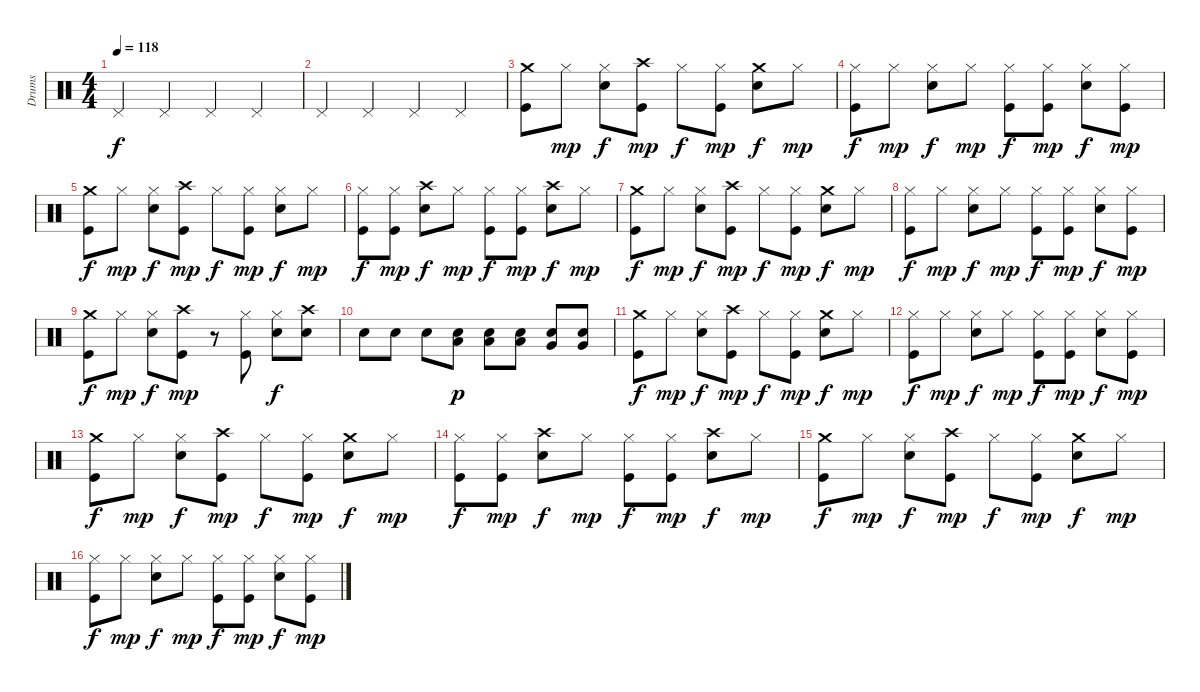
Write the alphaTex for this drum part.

\track ("Drums" "Drums") {instrument percussion}
\staff {score}
\articulation defaults
\ts (4 4)
\tempo 118
\clef neutral
\ks c "Pedal Hi-Hat (hit)".4{dy f} "Pedal Hi-Hat (hit)".4 "Pedal Hi-Hat (hit)".4 "Pedal Hi-Hat (hit)".4
|
"Pedal Hi-Hat (hit)".4 "Pedal Hi-Hat (hit)".4 "Pedal Hi-Hat (hit)".4 "Pedal Hi-Hat (hit)".4 |
("Crash medium (hit)" "Kick (hit)").8 "Hi-Hat (closed)".8{dy mp} ("Hi-Hat (closed)" "Snare (hit) 2").8{dy f} ("Crash high (hit)" "Kick (hit)").8{dy mp} "Hi-Hat (closed)".8{dy f} ("Hi-Hat (closed)" "Kick (hit)").8{dy mp} ("Crash medium (hit)" "Snare (hit) 2").8{dy f} "Hi-Hat (closed)".8{dy mp} |
("Hi-Hat (closed)" "Kick (hit)").8{dy f} "Hi-Hat (closed)".8{dy mp} ("Hi-Hat (closed)" "Snare (hit) 2").8{dy f} "Hi-Hat (closed)".8{dy mp} ("Hi-Hat (closed)" "Kick (hit)").8{dy f} ("Hi-Hat (closed)" "Kick (hit)").8{dy mp} ("Hi-Hat (closed)" "Snare (hit) 2").8{dy f} ("Hi-Hat (closed)" "Kick (hit)").8{dy mp} |
("Crash medium (hit)" "Kick (hit)").8{dy f} "Hi-Hat (closed)".8{dy mp} ("Hi-Hat (closed)" "Snare (hit) 2").8{dy f} ("Crash high (hit)" "Kick (hit)").8{dy mp} "Hi-Hat (closed)".8{dy f} ("Hi-Hat (closed)" "Kick (hit)").8{dy mp} ("Hi-Hat (closed)" "Snare (hit) 2").8{dy f} "Hi-Hat (closed)".8{dy mp} |
("Hi-Hat (closed)" "Kick (hit)").8{dy f} ("Hi-Hat (closed)" "Kick (hit)").8{dy mp} ("Crash high (hit)" "Snare (hit) 2").8{dy f} "Hi-Hat (closed)".8{dy mp} ("Hi-Hat (closed)" "Kick (hit)").8{dy f} ("Hi-Hat (closed)" "Kick (hit)").8{dy mp} ("Crash high (hit)" "Snare (hit) 2").8{dy f} "Hi-Hat (closed)".8{dy mp} |
("Crash medium (hit)" "Kick (hit)").8{dy f} "Hi-Hat (closed)".8{dy mp} ("Hi-Hat (closed)" "Snare (hit) 2").8{dy f} ("Crash high (hit)" "Kick (hit)").8{dy mp} "Hi-Hat (closed)".8{dy f} ("Hi-Hat (closed)" "Kick (hit)").8{dy mp} ("Crash medium (hit)" "Snare (hit) 2").8{dy f} "Hi-Hat (closed)".8{dy mp} |
("Hi-Hat (closed)" "Kick (hit)").8{dy f} "Hi-Hat (closed)".8{dy mp} ("Hi-Hat (closed)" "Snare (hit) 2").8{dy f} "Hi-Hat (closed)".8{dy mp} ("Hi-Hat (closed)" "Kick (hit)").8{dy f} ("Hi-Hat (closed)" "Kick (hit)").8{dy mp} ("Hi-Hat (closed)" "Snare (hit) 2").8{dy f} ("Hi-Hat (closed)" "Kick (hit)").8{dy mp} |
("Crash medium (hit)" "Kick (hit)").8{dy f} "Hi-Hat (closed)".8{dy mp} ("Hi-Hat (closed)" "Snare (hit) 2").8{dy f} ("Crash high (hit)" "Kick (hit)").8{dy mp} r.8 ("Hi-Hat (closed)" "Kick (hit)").8 ("Hi-Hat (closed)" "Snare (hit) 2").8{dy f} ("Crash high (hit)" "Snare (hit) 2").8 |
"Snare (hit) 2".8 "Snare (hit) 2".8 "Snare (hit) 2".8 ("Low Tom (hit)" "Snare (hit) 2").8{dy p} ("Low Tom (hit)" "Snare (hit) 2").8 ("Low Tom (hit)" "Snare (hit) 2").8 ("Very Low Tom (hit)" "Snare (hit) 2").8 ("Very Low Tom (hit)" "Snare (hit) 2").8 |
("Crash medium (hit)" "Kick (hit)").8{dy f} "Hi-Hat (closed)".8{dy mp} ("Hi-Hat (closed)" "Snare (hit) 2").8{dy f} ("Crash high (hit)" "Kick (hit)").8{dy mp} "Hi-Hat (closed)".8{dy f} ("Hi-Hat (closed)" "Kick (hit)").8{dy mp} ("Crash medium (hit)" "Snare (hit) 2").8{dy f} "Hi-Hat (closed)".8{dy mp} |
("Hi-Hat (closed)" "Kick (hit)").8{dy f} "Hi-Hat (closed)".8{dy mp} ("Hi-Hat (closed)" "Snare (hit) 2").8{dy f} "Hi-Hat (closed)".8{dy mp} ("Hi-Hat (closed)" "Kick (hit)").8{dy f} ("Hi-Hat (closed)" "Kick (hit)").8{dy mp} ("Hi-Hat (closed)" "Snare (hit) 2").8{dy f} ("Hi-Hat (closed)" "Kick (hit)").8{dy mp} |
("Crash medium (hit)" "Kick (hit)").8{dy f} "Hi-Hat (closed)".8{dy mp} ("Hi-Hat (closed)" "Snare (hit) 2").8{dy f} ("Crash high (hit)" "Kick (hit)").8{dy mp} "Hi-Hat (closed)".8{dy f} ("Hi-Hat (closed)" "Kick (hit)").8{dy mp} ("Crash medium (hit)" "Snare (hit) 2").8{dy f} "Hi-Hat (closed)".8{dy mp} |
("Hi-Hat (closed)" "Kick (hit)").8{dy f} ("Hi-Hat (closed)" "Kick (hit)").8{dy mp} ("Crash high (hit)" "Snare (hit) 2").8{dy f} "Hi-Hat (closed)".8{dy mp} ("Hi-Hat (closed)" "Kick (hit)").8{dy f} ("Hi-Hat (closed)" "Kick (hit)").8{dy mp} ("Crash high (hit)" "Snare (hit) 2").8{dy f} "Hi-Hat (closed)".8{dy mp} |
("Crash medium (hit)" "Kick (hit)").8{dy f} "Hi-Hat (closed)".8{dy mp} ("Hi-Hat (closed)" "Snare (hit) 2").8{dy f} ("Crash high (hit)" "Kick (hit)").8{dy mp} "Hi-Hat (closed)".8{dy f} ("Hi-Hat (closed)" "Kick (hit)").8{dy mp} ("Crash medium (hit)" "Snare (hit) 2").8{dy f} "Hi-Hat (closed)".8{dy mp} |
("Hi-Hat (closed)" "Kick (hit)").8{dy f} "Hi-Hat (closed)".8{dy mp} ("Hi-Hat (closed)" "Snare (hit) 2").8{dy f} "Hi-Hat (closed)".8{dy mp} ("Hi-Hat (closed)" "Kick (hit)").8{dy f} ("Hi-Hat (closed)" "Kick (hit)").8{dy mp} ("Hi-Hat (closed)" "Snare (hit) 2").8{dy f} ("Hi-Hat (closed)" "Kick (hit)").8{dy mp}
